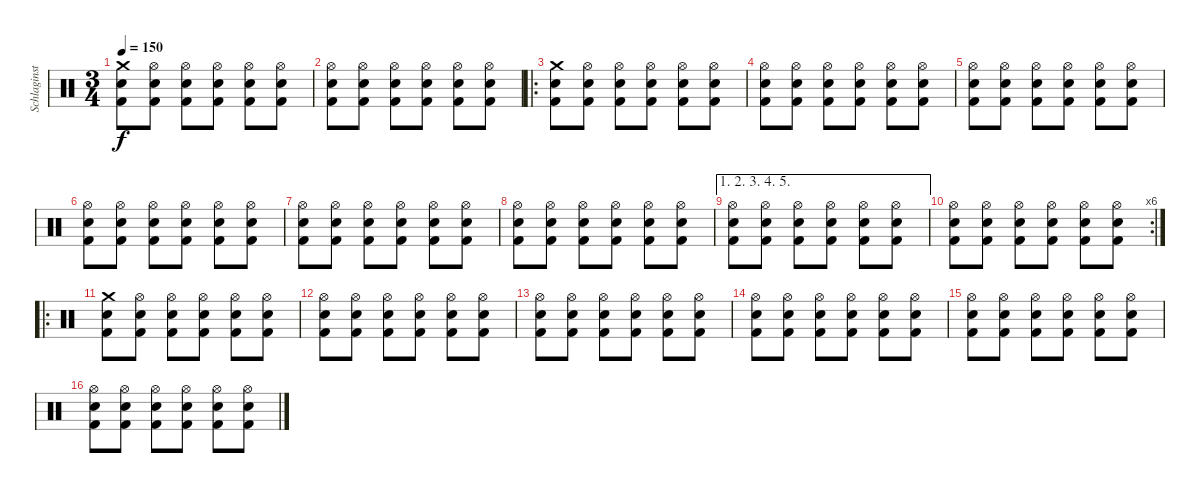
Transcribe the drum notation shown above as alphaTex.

\track ("Schlaginstrumente - Auswahl" "Schlaginst") {instrument percussion}
\staff {score}
\articulation defaults
\ts (3 4)
\tempo 150
\clef neutral
\ks c
("Crash medium (hit)" "Electric Snare (hit)" "Kick (hit) 2").8{dy f} ("Hi-Hat (open)" "Electric Snare (hit)" "Kick (hit) 2").8 ("Hi-Hat (open)" "Electric Snare (hit)" "Kick (hit) 2").8 ("Hi-Hat (open)" "Electric Snare (hit)" "Kick (hit) 2").8 ("Hi-Hat (open)" "Electric Snare (hit)" "Kick (hit) 2").8 ("Hi-Hat (open)" "Electric Snare (hit)" "Kick (hit) 2").8 |
("Hi-Hat (open)" "Electric Snare (hit)" "Kick (hit) 2").8 ("Hi-Hat (open)" "Electric Snare (hit)" "Kick (hit) 2").8 ("Hi-Hat (open)" "Electric Snare (hit)" "Kick (hit) 2").8 ("Hi-Hat (open)" "Electric Snare (hit)" "Kick (hit) 2").8 ("Hi-Hat (open)" "Electric Snare (hit)" "Kick (hit) 2").8 ("Hi-Hat (open)" "Electric Snare (hit)" "Kick (hit) 2").8 |
\ro
("Crash medium (hit)" "Electric Snare (hit)" "Kick (hit) 2").8 ("Hi-Hat (open)" "Electric Snare (hit)" "Kick (hit) 2").8 ("Hi-Hat (open)" "Electric Snare (hit)" "Kick (hit) 2").8 ("Hi-Hat (open)" "Electric Snare (hit)" "Kick (hit) 2").8 ("Hi-Hat (open)" "Electric Snare (hit)" "Kick (hit) 2").8 ("Hi-Hat (open)" "Electric Snare (hit)" "Kick (hit) 2").8 |
("Hi-Hat (open)" "Electric Snare (hit)" "Kick (hit) 2").8 ("Hi-Hat (open)" "Electric Snare (hit)" "Kick (hit) 2").8 ("Hi-Hat (open)" "Electric Snare (hit)" "Kick (hit) 2").8 ("Hi-Hat (open)" "Electric Snare (hit)" "Kick (hit) 2").8 ("Hi-Hat (open)" "Electric Snare (hit)" "Kick (hit) 2").8 ("Hi-Hat (open)" "Electric Snare (hit)" "Kick (hit) 2").8 |
("Hi-Hat (open)" "Electric Snare (hit)" "Kick (hit) 2").8 ("Hi-Hat (open)" "Electric Snare (hit)" "Kick (hit) 2").8 ("Hi-Hat (open)" "Electric Snare (hit)" "Kick (hit) 2").8 ("Hi-Hat (open)" "Electric Snare (hit)" "Kick (hit) 2").8 ("Hi-Hat (open)" "Electric Snare (hit)" "Kick (hit) 2").8 ("Hi-Hat (open)" "Electric Snare (hit)" "Kick (hit) 2").8 |
("Hi-Hat (open)" "Electric Snare (hit)" "Kick (hit) 2").8 ("Hi-Hat (open)" "Electric Snare (hit)" "Kick (hit) 2").8 ("Hi-Hat (open)" "Electric Snare (hit)" "Kick (hit) 2").8 ("Hi-Hat (open)" "Electric Snare (hit)" "Kick (hit) 2").8 ("Hi-Hat (open)" "Electric Snare (hit)" "Kick (hit) 2").8 ("Hi-Hat (open)" "Electric Snare (hit)" "Kick (hit) 2").8 |
("Hi-Hat (open)" "Electric Snare (hit)" "Kick (hit) 2").8 ("Hi-Hat (open)" "Electric Snare (hit)" "Kick (hit) 2").8 ("Hi-Hat (open)" "Electric Snare (hit)" "Kick (hit) 2").8 ("Hi-Hat (open)" "Electric Snare (hit)" "Kick (hit) 2").8 ("Hi-Hat (open)" "Electric Snare (hit)" "Kick (hit) 2").8 ("Hi-Hat (open)" "Electric Snare (hit)" "Kick (hit) 2").8 |
("Hi-Hat (open)" "Electric Snare (hit)" "Kick (hit) 2").8 ("Hi-Hat (open)" "Electric Snare (hit)" "Kick (hit) 2").8 ("Hi-Hat (open)" "Electric Snare (hit)" "Kick (hit) 2").8 ("Hi-Hat (open)" "Electric Snare (hit)" "Kick (hit) 2").8 ("Hi-Hat (open)" "Electric Snare (hit)" "Kick (hit) 2").8 ("Hi-Hat (open)" "Electric Snare (hit)" "Kick (hit) 2").8 |
\ae (1 2 3 4 5)
("Hi-Hat (open)" "Electric Snare (hit)" "Kick (hit) 2").8 ("Hi-Hat (open)" "Electric Snare (hit)" "Kick (hit) 2").8 ("Hi-Hat (open)" "Electric Snare (hit)" "Kick (hit) 2").8 ("Hi-Hat (open)" "Electric Snare (hit)" "Kick (hit) 2").8 ("Hi-Hat (open)" "Electric Snare (hit)" "Kick (hit) 2").8 ("Hi-Hat (open)" "Electric Snare (hit)" "Kick (hit) 2").8 |
\rc 6
("Hi-Hat (open)" "Electric Snare (hit)" "Kick (hit) 2").8 ("Hi-Hat (open)" "Electric Snare (hit)" "Kick (hit) 2").8 ("Hi-Hat (open)" "Electric Snare (hit)" "Kick (hit) 2").8 ("Hi-Hat (open)" "Electric Snare (hit)" "Kick (hit) 2").8 ("Hi-Hat (open)" "Electric Snare (hit)" "Kick (hit) 2").8 ("Hi-Hat (open)" "Electric Snare (hit)" "Kick (hit) 2").8 |
\ro
("Crash medium (hit)" "Electric Snare (hit)" "Kick (hit) 2").8 ("Hi-Hat (open)" "Electric Snare (hit)" "Kick (hit) 2").8 ("Hi-Hat (open)" "Electric Snare (hit)" "Kick (hit) 2").8 ("Hi-Hat (open)" "Electric Snare (hit)" "Kick (hit) 2").8 ("Hi-Hat (open)" "Electric Snare (hit)" "Kick (hit) 2").8 ("Hi-Hat (open)" "Electric Snare (hit)" "Kick (hit) 2").8 |
("Hi-Hat (open)" "Electric Snare (hit)" "Kick (hit) 2").8 ("Hi-Hat (open)" "Electric Snare (hit)" "Kick (hit) 2").8 ("Hi-Hat (open)" "Electric Snare (hit)" "Kick (hit) 2").8 ("Hi-Hat (open)" "Electric Snare (hit)" "Kick (hit) 2").8 ("Hi-Hat (open)" "Electric Snare (hit)" "Kick (hit) 2").8 ("Hi-Hat (open)" "Electric Snare (hit)" "Kick (hit) 2").8 |
("Hi-Hat (open)" "Electric Snare (hit)" "Kick (hit) 2").8 ("Hi-Hat (open)" "Electric Snare (hit)" "Kick (hit) 2").8 ("Hi-Hat (open)" "Electric Snare (hit)" "Kick (hit) 2").8 ("Hi-Hat (open)" "Electric Snare (hit)" "Kick (hit) 2").8 ("Hi-Hat (open)" "Electric Snare (hit)" "Kick (hit) 2").8 ("Hi-Hat (open)" "Electric Snare (hit)" "Kick (hit) 2").8 |
("Hi-Hat (open)" "Electric Snare (hit)" "Kick (hit) 2").8 ("Hi-Hat (open)" "Electric Snare (hit)" "Kick (hit) 2").8 ("Hi-Hat (open)" "Electric Snare (hit)" "Kick (hit) 2").8 ("Hi-Hat (open)" "Electric Snare (hit)" "Kick (hit) 2").8 ("Hi-Hat (open)" "Electric Snare (hit)" "Kick (hit) 2").8 ("Hi-Hat (open)" "Electric Snare (hit)" "Kick (hit) 2").8 |
("Hi-Hat (open)" "Electric Snare (hit)" "Kick (hit) 2").8 ("Hi-Hat (open)" "Electric Snare (hit)" "Kick (hit) 2").8 ("Hi-Hat (open)" "Electric Snare (hit)" "Kick (hit) 2").8 ("Hi-Hat (open)" "Electric Snare (hit)" "Kick (hit) 2").8 ("Hi-Hat (open)" "Electric Snare (hit)" "Kick (hit) 2").8 ("Hi-Hat (open)" "Electric Snare (hit)" "Kick (hit) 2").8 |
("Hi-Hat (open)" "Electric Snare (hit)" "Kick (hit) 2").8 ("Hi-Hat (open)" "Electric Snare (hit)" "Kick (hit) 2").8 ("Hi-Hat (open)" "Electric Snare (hit)" "Kick (hit) 2").8 ("Hi-Hat (open)" "Electric Snare (hit)" "Kick (hit) 2").8 ("Hi-Hat (open)" "Electric Snare (hit)" "Kick (hit) 2").8 ("Hi-Hat (open)" "Electric Snare (hit)" "Kick (hit) 2").8
